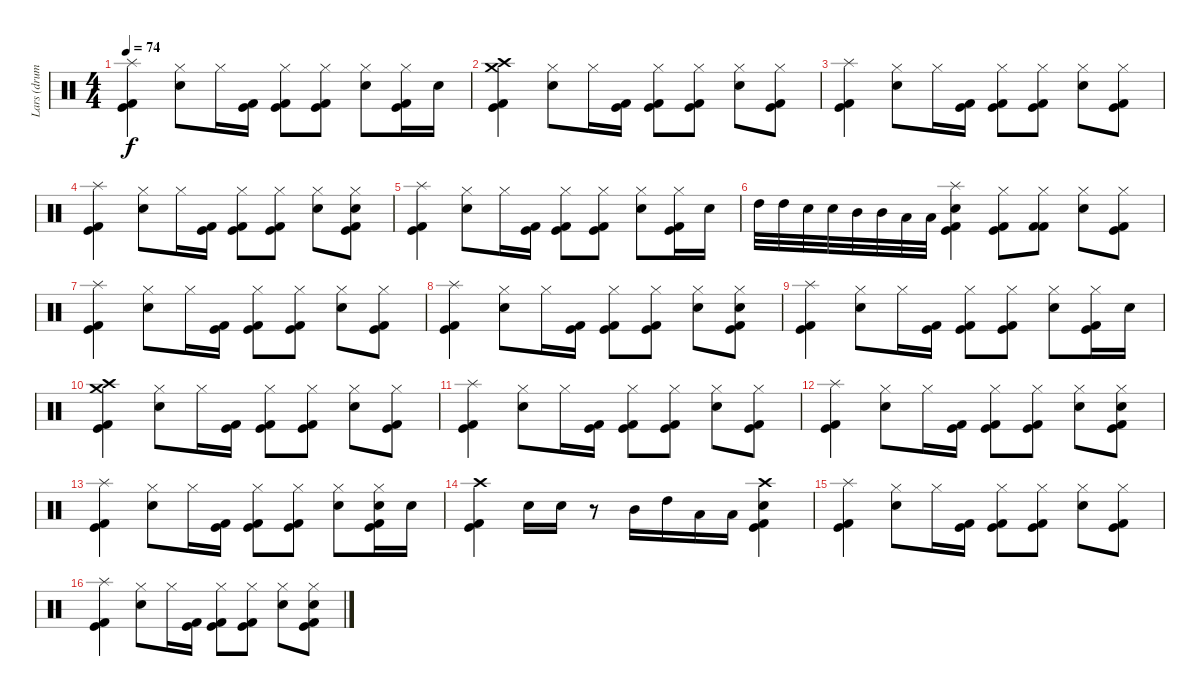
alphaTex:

\track ("Lars (drums)" "Lars (drum") {instrument percussion}
\staff {score}
\articulation defaults
\ts (4 4)
\tempo 74
\clef neutral
\ks c
("Splash (hit)" "Kick (hit) 2" "Kick (hit)").4{dy f} ("Hi-Hat (closed)" "Electric Snare (hit)").8 "Hi-Hat (closed)".16 ("Kick (hit) 2" "Kick (hit)").16 ("Hi-Hat (closed)" "Kick (hit) 2" "Kick (hit)").8 ("Hi-Hat (closed)" "Kick (hit)" "Kick (hit) 2").8 ("Hi-Hat (closed)" "Electric Snare (hit)").8 ("Hi-Hat (closed)" "Kick (hit) 2" "Kick (hit)").16 "Electric Snare (hit)".16 |
("Crash medium (hit)" "Crash high (hit)" "Kick (hit) 2" "Kick (hit)").4 ("Hi-Hat (closed)" "Electric Snare (hit)").8 "Hi-Hat (closed)".16 ("Kick (hit) 2" "Kick (hit)").16 ("Hi-Hat (closed)" "Kick (hit) 2" "Kick (hit)").8 ("Hi-Hat (closed)" "Kick (hit)" "Kick (hit) 2").8 ("Hi-Hat (closed)" "Electric Snare (hit)").8 ("Hi-Hat (closed)" "Kick (hit) 2" "Kick (hit)").8 |
("Splash (hit)" "Kick (hit) 2" "Kick (hit)").4 ("Hi-Hat (closed)" "Electric Snare (hit)").8 "Hi-Hat (closed)".16 ("Kick (hit) 2" "Kick (hit)").16 ("Hi-Hat (closed)" "Kick (hit) 2" "Kick (hit)").8 ("Hi-Hat (closed)" "Kick (hit)" "Kick (hit) 2").8 ("Hi-Hat (closed)" "Electric Snare (hit)").8 ("Hi-Hat (closed)" "Kick (hit) 2" "Kick (hit)").8 |
("Splash (hit)" "Kick (hit) 2" "Kick (hit)").4 ("Hi-Hat (closed)" "Electric Snare (hit)").8 "Hi-Hat (closed)".16 ("Kick (hit) 2" "Kick (hit)").16 ("Hi-Hat (closed)" "Kick (hit) 2" "Kick (hit)").8 ("Hi-Hat (closed)" "Kick (hit)" "Kick (hit) 2").8 ("Hi-Hat (closed)" "Electric Snare (hit)").8 ("Hi-Hat (closed)" "Electric Snare (hit)" "Kick (hit) 2" "Kick (hit)").8 |
("Splash (hit)" "Kick (hit) 2" "Kick (hit)").4 ("Hi-Hat (closed)" "Electric Snare (hit)").8 "Hi-Hat (closed)".16 ("Kick (hit) 2" "Kick (hit)").16 ("Hi-Hat (closed)" "Kick (hit) 2" "Kick (hit)").8 ("Hi-Hat (closed)" "Kick (hit)" "Kick (hit) 2").8 ("Hi-Hat (closed)" "Electric Snare (hit)").8 ("Hi-Hat (closed)" "Kick (hit) 2" "Kick (hit)").16 "Electric Snare (hit)".16 |
"High Tom (hit)".32 "High Tom (hit)".32 "Electric Snare (hit)".32 "Electric Snare (hit)".32 "Mid Tom (hit)".32 "Mid Tom (hit)".32 "Low Floor Tom (hit)".32 "Low Floor Tom (hit)".32 ("Splash (hit)" "Electric Snare (hit)" "Kick (hit) 2" "Kick (hit)").4 ("Hi-Hat (closed)" "Kick (hit) 2" "Kick (hit)").8 ("Hi-Hat (closed)" "Kick (hit) 2" "Kick (hit) 2").8 ("Hi-Hat (closed)" "Electric Snare (hit)").8 ("Hi-Hat (closed)" "Kick (hit) 2" "Kick (hit)").8 |
("Splash (hit)" "Kick (hit) 2" "Kick (hit)").4 ("Hi-Hat (closed)" "Electric Snare (hit)").8 "Hi-Hat (closed)".16 ("Kick (hit) 2" "Kick (hit)").16 ("Hi-Hat (closed)" "Kick (hit) 2" "Kick (hit)").8 ("Hi-Hat (closed)" "Kick (hit)" "Kick (hit) 2").8 ("Hi-Hat (closed)" "Electric Snare (hit)").8 ("Hi-Hat (closed)" "Kick (hit) 2" "Kick (hit)").8 |
("Splash (hit)" "Kick (hit) 2" "Kick (hit)").4 ("Hi-Hat (closed)" "Electric Snare (hit)").8 "Hi-Hat (closed)".16 ("Kick (hit) 2" "Kick (hit)").16 ("Hi-Hat (closed)" "Kick (hit) 2" "Kick (hit)").8 ("Hi-Hat (closed)" "Kick (hit)" "Kick (hit) 2").8 ("Hi-Hat (closed)" "Electric Snare (hit)").8 ("Hi-Hat (closed)" "Electric Snare (hit)" "Kick (hit) 2" "Kick (hit)").8 |
("Splash (hit)" "Kick (hit) 2" "Kick (hit)").4 ("Hi-Hat (closed)" "Electric Snare (hit)").8 "Hi-Hat (closed)".16 ("Kick (hit) 2" "Kick (hit)").16 ("Hi-Hat (closed)" "Kick (hit) 2" "Kick (hit)").8 ("Hi-Hat (closed)" "Kick (hit)" "Kick (hit) 2").8 ("Hi-Hat (closed)" "Electric Snare (hit)").8 ("Hi-Hat (closed)" "Kick (hit) 2" "Kick (hit)").16 "Electric Snare (hit)".16 |
("Crash medium (hit)" "Crash high (hit)" "Kick (hit) 2" "Kick (hit)").4 ("Hi-Hat (closed)" "Electric Snare (hit)").8 "Hi-Hat (closed)".16 ("Kick (hit) 2" "Kick (hit)").16 ("Hi-Hat (closed)" "Kick (hit) 2" "Kick (hit)").8 ("Hi-Hat (closed)" "Kick (hit)" "Kick (hit) 2").8 ("Hi-Hat (closed)" "Electric Snare (hit)").8 ("Hi-Hat (closed)" "Kick (hit) 2" "Kick (hit)").8 |
("Splash (hit)" "Kick (hit) 2" "Kick (hit)").4 ("Hi-Hat (closed)" "Electric Snare (hit)").8 "Hi-Hat (closed)".16 ("Kick (hit) 2" "Kick (hit)").16 ("Hi-Hat (closed)" "Kick (hit) 2" "Kick (hit)").8 ("Hi-Hat (closed)" "Kick (hit)" "Kick (hit) 2").8 ("Hi-Hat (closed)" "Electric Snare (hit)").8 ("Hi-Hat (closed)" "Kick (hit) 2" "Kick (hit)").8 |
("Splash (hit)" "Kick (hit) 2" "Kick (hit)").4 ("Hi-Hat (closed)" "Electric Snare (hit)").8 "Hi-Hat (closed)".16 ("Kick (hit) 2" "Kick (hit)").16 ("Hi-Hat (closed)" "Kick (hit) 2" "Kick (hit)").8 ("Hi-Hat (closed)" "Kick (hit)" "Kick (hit) 2").8 ("Hi-Hat (closed)" "Electric Snare (hit)").8 ("Hi-Hat (closed)" "Electric Snare (hit)" "Kick (hit) 2" "Kick (hit)").8 |
("Splash (hit)" "Kick (hit) 2" "Kick (hit)").4 ("Hi-Hat (closed)" "Electric Snare (hit)").8 "Hi-Hat (closed)".16 ("Kick (hit) 2" "Kick (hit)").16 ("Hi-Hat (closed)" "Kick (hit) 2" "Kick (hit)").8 ("Hi-Hat (closed)" "Kick (hit)" "Kick (hit) 2").8 ("Hi-Hat (closed)" "Electric Snare (hit)").8 ("Hi-Hat (closed)" "Electric Snare (hit)" "Kick (hit) 2" "Kick (hit)").16 "Electric Snare (hit)".16 |
("Crash high (hit)" "Kick (hit) 2" "Kick (hit)").4 "Electric Snare (hit)".16 "Electric Snare (hit)".16 r.8 "Mid Tom (hit)".16 "High Tom (hit)".16 "Low Floor Tom (hit)".16 "Low Floor Tom (hit)".16 ("Crash high (hit)" "Kick (hit) 2" "Kick (hit)" "Electric Snare (hit)").4 |
("Splash (hit)" "Kick (hit) 2" "Kick (hit)").4 ("Hi-Hat (closed)" "Electric Snare (hit)").8 "Hi-Hat (closed)".16 ("Kick (hit) 2" "Kick (hit)").16 ("Hi-Hat (closed)" "Kick (hit) 2" "Kick (hit)").8 ("Hi-Hat (closed)" "Kick (hit)" "Kick (hit) 2").8 ("Hi-Hat (closed)" "Electric Snare (hit)").8 ("Hi-Hat (closed)" "Kick (hit) 2" "Kick (hit)").8 |
("Splash (hit)" "Kick (hit) 2" "Kick (hit)").4 ("Hi-Hat (closed)" "Electric Snare (hit)").8 "Hi-Hat (closed)".16 ("Kick (hit) 2" "Kick (hit)").16 ("Hi-Hat (closed)" "Kick (hit) 2" "Kick (hit)").8 ("Hi-Hat (closed)" "Kick (hit)" "Kick (hit) 2").8 ("Hi-Hat (closed)" "Electric Snare (hit)").8 ("Hi-Hat (closed)" "Electric Snare (hit)" "Kick (hit) 2" "Kick (hit)").8
